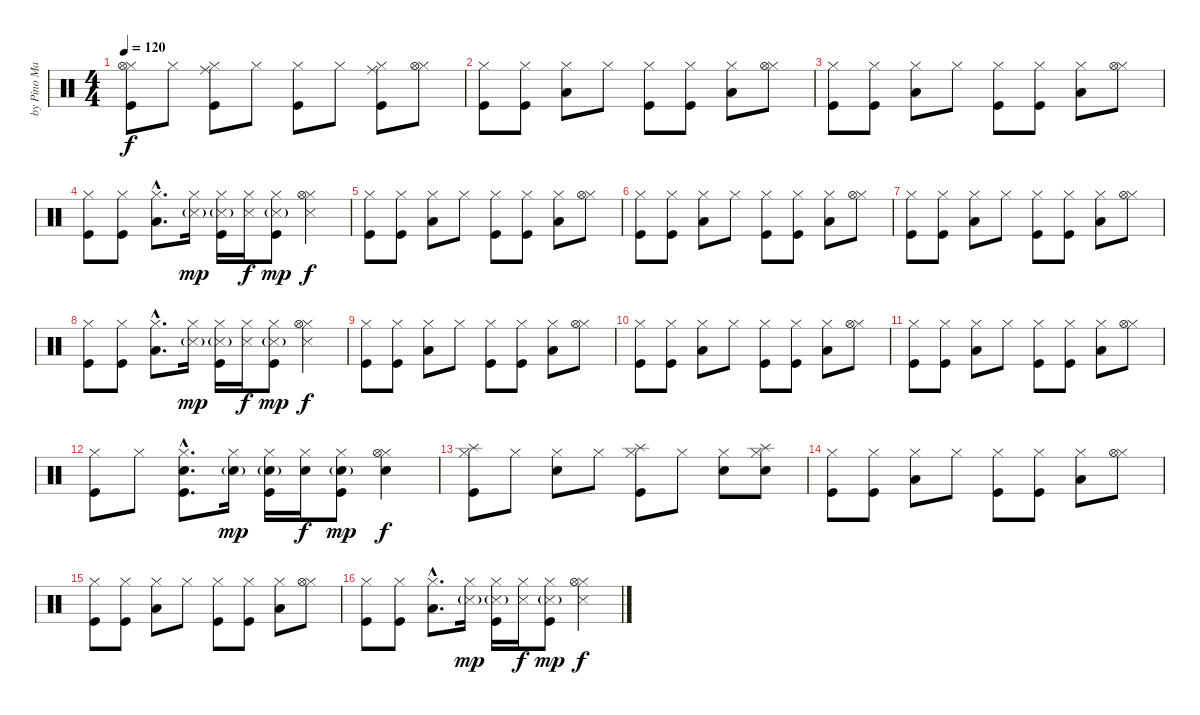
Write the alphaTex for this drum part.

\track ("by Pino Mariconda - e Gianni De Vita" "by Pino Ma") {instrument percussion}
\staff {score}
\articulation defaults
\ts (4 4)
\tempo 120
\clef neutral
\ks c
("Hi-Hat (closed)" "Hi-Hat (open)" "Kick (hit)").8{dy f} "Hi-Hat (closed)".8 ("Ride (middle)" "Hi-Hat (closed)" "Kick (hit)").8 "Hi-Hat (closed)".8 ("Hi-Hat (closed)" "Kick (hit)").8 "Hi-Hat (closed)".8 ("Ride (middle)" "Hi-Hat (closed)" "Kick (hit)").8 ("Hi-Hat (closed)" "Hi-Hat (open)").8 |
("Hi-Hat (closed)" "Kick (hit)").8 ("Hi-Hat (closed)" "Kick (hit)").8 ("Hi-Hat (closed)" "Low Tom (hit)").8 "Hi-Hat (closed)".8 ("Hi-Hat (closed)" "Kick (hit)").8 ("Hi-Hat (closed)" "Kick (hit)").8 ("Hi-Hat (closed)" "Low Tom (hit)").8 ("Hi-Hat (closed)" "Hi-Hat (open)").8 |
("Hi-Hat (closed)" "Kick (hit)").8 ("Hi-Hat (closed)" "Kick (hit)").8 ("Hi-Hat (closed)" "Low Tom (hit)").8 "Hi-Hat (closed)".8 ("Hi-Hat (closed)" "Kick (hit)").8 ("Hi-Hat (closed)" "Kick (hit)").8 ("Hi-Hat (closed)" "Low Tom (hit)").8 ("Hi-Hat (closed)" "Hi-Hat (open)").8 |
("Hi-Hat (closed)" "Kick (hit)").8 ("Hi-Hat (closed)" "Kick (hit)").8 ("Hi-Hat (closed)"{hac} "Low Tom (hit)"{hac}).8{d} ("Hi-Hat (closed)" "Snare (side stick) 3"{g}).16{dy mp} ("Hi-Hat (closed)" "Kick (hit)" "Snare (side stick) 3"{g}).16 ("Hi-Hat (closed)" "Snare (side stick) 3").16{dy f} ("Hi-Hat (closed)" "Kick (hit)" "Snare (side stick) 3"{g}).8{dy mp} ("Hi-Hat (closed)" "Hi-Hat (open)" "Snare (side stick) 3").4{dy f} |
("Hi-Hat (closed)" "Kick (hit)").8 ("Hi-Hat (closed)" "Kick (hit)").8 ("Hi-Hat (closed)" "Low Tom (hit)").8 "Hi-Hat (closed)".8 ("Hi-Hat (closed)" "Kick (hit)").8 ("Hi-Hat (closed)" "Kick (hit)").8 ("Hi-Hat (closed)" "Low Tom (hit)").8 ("Hi-Hat (closed)" "Hi-Hat (open)").8 |
("Hi-Hat (closed)" "Kick (hit)").8 ("Hi-Hat (closed)" "Kick (hit)").8 ("Hi-Hat (closed)" "Low Tom (hit)").8 "Hi-Hat (closed)".8 ("Hi-Hat (closed)" "Kick (hit)").8 ("Hi-Hat (closed)" "Kick (hit)").8 ("Hi-Hat (closed)" "Low Tom (hit)").8 ("Hi-Hat (closed)" "Hi-Hat (open)").8 |
("Hi-Hat (closed)" "Kick (hit)").8 ("Hi-Hat (closed)" "Kick (hit)").8 ("Hi-Hat (closed)" "Low Tom (hit)").8 "Hi-Hat (closed)".8 ("Hi-Hat (closed)" "Kick (hit)").8 ("Hi-Hat (closed)" "Kick (hit)").8 ("Hi-Hat (closed)" "Low Tom (hit)").8 ("Hi-Hat (closed)" "Hi-Hat (open)").8 |
("Hi-Hat (closed)" "Kick (hit)").8 ("Hi-Hat (closed)" "Kick (hit)").8 ("Hi-Hat (closed)"{hac} "Low Tom (hit)"{hac}).8{d} ("Hi-Hat (closed)" "Snare (side stick) 3"{g}).16{dy mp} ("Hi-Hat (closed)" "Kick (hit)" "Snare (side stick) 3"{g}).16 ("Hi-Hat (closed)" "Snare (side stick) 3").16{dy f} ("Hi-Hat (closed)" "Kick (hit)" "Snare (side stick) 3"{g}).8{dy mp} ("Hi-Hat (closed)" "Hi-Hat (open)" "Snare (side stick) 3").4{dy f} |
("Hi-Hat (closed)" "Kick (hit)").8 ("Hi-Hat (closed)" "Kick (hit)").8 ("Hi-Hat (closed)" "Low Tom (hit)").8 "Hi-Hat (closed)".8 ("Hi-Hat (closed)" "Kick (hit)").8 ("Hi-Hat (closed)" "Kick (hit)").8 ("Hi-Hat (closed)" "Low Tom (hit)").8 ("Hi-Hat (closed)" "Hi-Hat (open)").8 |
("Hi-Hat (closed)" "Kick (hit)").8 ("Hi-Hat (closed)" "Kick (hit)").8 ("Hi-Hat (closed)" "Low Tom (hit)").8 "Hi-Hat (closed)".8 ("Hi-Hat (closed)" "Kick (hit)").8 ("Hi-Hat (closed)" "Kick (hit)").8 ("Hi-Hat (closed)" "Low Tom (hit)").8 ("Hi-Hat (closed)" "Hi-Hat (open)").8 |
("Hi-Hat (closed)" "Kick (hit)").8 ("Hi-Hat (closed)" "Kick (hit)").8 ("Hi-Hat (closed)" "Low Tom (hit)").8 "Hi-Hat (closed)".8 ("Hi-Hat (closed)" "Kick (hit)").8 ("Hi-Hat (closed)" "Kick (hit)").8 ("Hi-Hat (closed)" "Low Tom (hit)").8 ("Hi-Hat (closed)" "Hi-Hat (open)").8 |
("Hi-Hat (closed)" "Kick (hit)").8 "Hi-Hat (closed)".8 ("Hi-Hat (closed)"{hac} "Kick (hit)"{hac} "Snare (hit) 2"{hac}).8{d} ("Hi-Hat (closed)" "Snare (hit) 2"{g}).16{dy mp} ("Hi-Hat (closed)" "Kick (hit)" "Snare (hit) 2"{g}).16 ("Hi-Hat (closed)" "Snare (hit) 2").16{dy f} ("Hi-Hat (closed)" "Kick (hit)" "Snare (hit) 2"{g}).8{dy mp} ("Hi-Hat (closed)" "Hi-Hat (open)" "Snare (hit) 2").4{dy f} |
("Splash (hit)" "Hi-Hat (closed)" "Kick (hit)").8 "Hi-Hat (closed)".8 ("Hi-Hat (closed)" "Snare (hit) 2").8 "Hi-Hat (closed)".8 ("Splash (hit)" "Hi-Hat (closed)" "Kick (hit)").8 "Hi-Hat (closed)".8 ("Hi-Hat (closed)" "Snare (hit) 2").8 ("Splash (hit)" "Hi-Hat (closed)" "Snare (hit) 2").8 |
("Hi-Hat (closed)" "Kick (hit)").8 ("Hi-Hat (closed)" "Kick (hit)").8 ("Hi-Hat (closed)" "Low Tom (hit)").8 "Hi-Hat (closed)".8 ("Hi-Hat (closed)" "Kick (hit)").8 ("Hi-Hat (closed)" "Kick (hit)").8 ("Hi-Hat (closed)" "Low Tom (hit)").8 ("Hi-Hat (closed)" "Hi-Hat (open)").8 |
("Hi-Hat (closed)" "Kick (hit)").8 ("Hi-Hat (closed)" "Kick (hit)").8 ("Hi-Hat (closed)" "Low Tom (hit)").8 "Hi-Hat (closed)".8 ("Hi-Hat (closed)" "Kick (hit)").8 ("Hi-Hat (closed)" "Kick (hit)").8 ("Hi-Hat (closed)" "Low Tom (hit)").8 ("Hi-Hat (closed)" "Hi-Hat (open)").8 |
("Hi-Hat (closed)" "Kick (hit)").8 ("Hi-Hat (closed)" "Kick (hit)").8 ("Hi-Hat (closed)"{hac} "Low Tom (hit)"{hac}).8{d} ("Hi-Hat (closed)" "Snare (side stick) 3"{g}).16{dy mp} ("Hi-Hat (closed)" "Kick (hit)" "Snare (side stick) 3"{g}).16 ("Hi-Hat (closed)" "Snare (side stick) 3").16{dy f} ("Hi-Hat (closed)" "Kick (hit)" "Snare (side stick) 3"{g}).8{dy mp} ("Hi-Hat (closed)" "Hi-Hat (open)" "Snare (side stick) 3").4{dy f}
